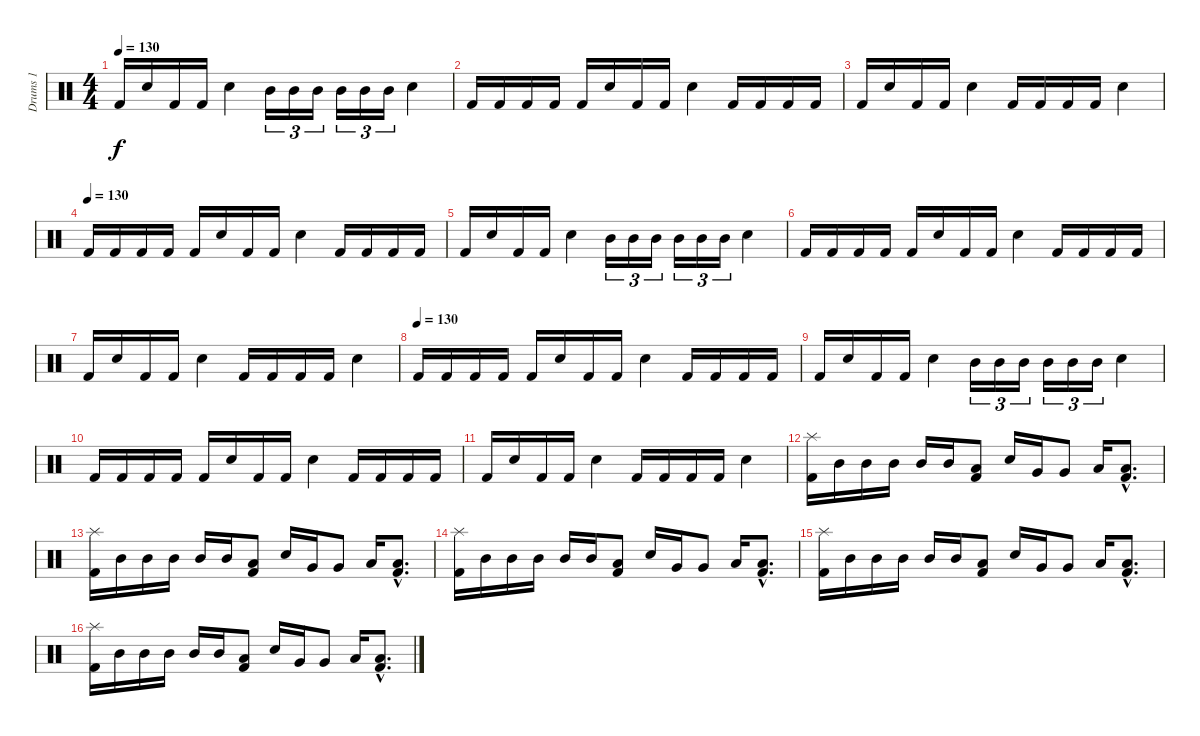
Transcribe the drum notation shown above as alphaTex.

\track ("Drums 1" "Drums 1") {instrument percussion}
\staff {score}
\articulation defaults
\ts (4 4)
\tempo 130
\clef neutral
\ks c "Kick (hit) 2".16{dy f} "Snare (hit) 2".16 "Kick (hit) 2".16 "Kick (hit) 2".16 "Snare (hit) 2".4 "Mid Tom (hit)".16{tu (3 2)} "Mid Tom (hit)".16{tu (3 2)} "Mid Tom (hit)".16{tu (3 2)} "Mid Tom (hit)".16{tu (3 2)} "Mid Tom (hit)".16{tu (3 2)} "Mid Tom (hit)".16{tu (3 2)} "Snare (hit) 2".4
|
"Kick (hit) 2".16 "Kick (hit) 2".16 "Kick (hit) 2".16 "Kick (hit) 2".16 "Kick (hit) 2".16 "Snare (hit) 2".16 "Kick (hit) 2".16 "Kick (hit) 2".16 "Snare (hit) 2".4 "Kick (hit) 2".16 "Kick (hit) 2".16 "Kick (hit) 2".16 "Kick (hit) 2".16 |
"Kick (hit) 2".16 "Snare (hit) 2".16 "Kick (hit) 2".16 "Kick (hit) 2".16 "Snare (hit) 2".4 "Kick (hit) 2".16 "Kick (hit) 2".16 "Kick (hit) 2".16 "Kick (hit) 2".16 "Snare (hit) 2".4 |
\tempo (130)
"Kick (hit) 2".16 "Kick (hit) 2".16 "Kick (hit) 2".16 "Kick (hit) 2".16 "Kick (hit) 2".16 "Snare (hit) 2".16 "Kick (hit) 2".16 "Kick (hit) 2".16 "Snare (hit) 2".4 "Kick (hit) 2".16 "Kick (hit) 2".16 "Kick (hit) 2".16 "Kick (hit) 2".16 |
"Kick (hit) 2".16 "Snare (hit) 2".16 "Kick (hit) 2".16 "Kick (hit) 2".16 "Snare (hit) 2".4 "Mid Tom (hit)".16{tu (3 2)} "Mid Tom (hit)".16{tu (3 2)} "Mid Tom (hit)".16{tu (3 2)} "Mid Tom (hit)".16{tu (3 2)} "Mid Tom (hit)".16{tu (3 2)} "Mid Tom (hit)".16{tu (3 2)} "Snare (hit) 2".4 |
"Kick (hit) 2".16 "Kick (hit) 2".16 "Kick (hit) 2".16 "Kick (hit) 2".16 "Kick (hit) 2".16 "Snare (hit) 2".16 "Kick (hit) 2".16 "Kick (hit) 2".16 "Snare (hit) 2".4 "Kick (hit) 2".16 "Kick (hit) 2".16 "Kick (hit) 2".16 "Kick (hit) 2".16 |
"Kick (hit) 2".16 "Snare (hit) 2".16 "Kick (hit) 2".16 "Kick (hit) 2".16 "Snare (hit) 2".4 "Kick (hit) 2".16 "Kick (hit) 2".16 "Kick (hit) 2".16 "Kick (hit) 2".16 "Snare (hit) 2".4 |
\tempo (130)
"Kick (hit) 2".16 "Kick (hit) 2".16 "Kick (hit) 2".16 "Kick (hit) 2".16 "Kick (hit) 2".16 "Snare (hit) 2".16 "Kick (hit) 2".16 "Kick (hit) 2".16 "Snare (hit) 2".4 "Kick (hit) 2".16 "Kick (hit) 2".16 "Kick (hit) 2".16 "Kick (hit) 2".16 |
"Kick (hit) 2".16 "Snare (hit) 2".16 "Kick (hit) 2".16 "Kick (hit) 2".16 "Snare (hit) 2".4 "Mid Tom (hit)".16{tu (3 2)} "Mid Tom (hit)".16{tu (3 2)} "Mid Tom (hit)".16{tu (3 2)} "Mid Tom (hit)".16{tu (3 2)} "Mid Tom (hit)".16{tu (3 2)} "Mid Tom (hit)".16{tu (3 2)} "Snare (hit) 2".4 |
"Kick (hit) 2".16 "Kick (hit) 2".16 "Kick (hit) 2".16 "Kick (hit) 2".16 "Kick (hit) 2".16 "Snare (hit) 2".16 "Kick (hit) 2".16 "Kick (hit) 2".16 "Snare (hit) 2".4 "Kick (hit) 2".16 "Kick (hit) 2".16 "Kick (hit) 2".16 "Kick (hit) 2".16 |
"Kick (hit) 2".16 "Snare (hit) 2".16 "Kick (hit) 2".16 "Kick (hit) 2".16 "Snare (hit) 2".4 "Kick (hit) 2".16 "Kick (hit) 2".16 "Kick (hit) 2".16 "Kick (hit) 2".16 "Snare (hit) 2".4 |
("Splash (hit)" "Kick (hit) 2").16 "Mid Tom (hit)".16 "Mid Tom (hit)".16 "Mid Tom (hit)".16 "Mid Tom (hit)".16 "Mid Tom (hit)".16 ("Low Tom (hit)" "Kick (hit) 2").8 "Snare (hit) 2".16 "Very Low Tom (hit)".16 "Very Low Tom (hit)".8 "Low Floor Tom (hit)".16 ("Low Floor Tom (hit)"{hac} "Kick (hit) 2"{hac}).8{d} |
("Splash (hit)" "Kick (hit) 2").16 "Mid Tom (hit)".16 "Mid Tom (hit)".16 "Mid Tom (hit)".16 "Mid Tom (hit)".16 "Mid Tom (hit)".16 ("Low Tom (hit)" "Kick (hit) 2").8 "Snare (hit) 2".16 "Very Low Tom (hit)".16 "Very Low Tom (hit)".8 "Low Floor Tom (hit)".16 ("Low Floor Tom (hit)"{hac} "Kick (hit) 2"{hac}).8{d} |
("Splash (hit)" "Kick (hit) 2").16 "Mid Tom (hit)".16 "Mid Tom (hit)".16 "Mid Tom (hit)".16 "Mid Tom (hit)".16 "Mid Tom (hit)".16 ("Low Tom (hit)" "Kick (hit) 2").8 "Snare (hit) 2".16 "Very Low Tom (hit)".16 "Very Low Tom (hit)".8 "Low Floor Tom (hit)".16 ("Low Floor Tom (hit)"{hac} "Kick (hit) 2"{hac}).8{d} |
("Splash (hit)" "Kick (hit) 2").16 "Mid Tom (hit)".16 "Mid Tom (hit)".16 "Mid Tom (hit)".16 "Mid Tom (hit)".16 "Mid Tom (hit)".16 ("Low Tom (hit)" "Kick (hit) 2").8 "Snare (hit) 2".16 "Very Low Tom (hit)".16 "Very Low Tom (hit)".8 "Low Floor Tom (hit)".16 ("Low Floor Tom (hit)"{hac} "Kick (hit) 2"{hac}).8{d} |
("Splash (hit)" "Kick (hit) 2").16 "Mid Tom (hit)".16 "Mid Tom (hit)".16 "Mid Tom (hit)".16 "Mid Tom (hit)".16 "Mid Tom (hit)".16 ("Low Tom (hit)" "Kick (hit) 2").8 "Snare (hit) 2".16 "Very Low Tom (hit)".16 "Very Low Tom (hit)".8 "Low Floor Tom (hit)".16 ("Low Floor Tom (hit)"{hac} "Kick (hit) 2"{hac}).8{d}
